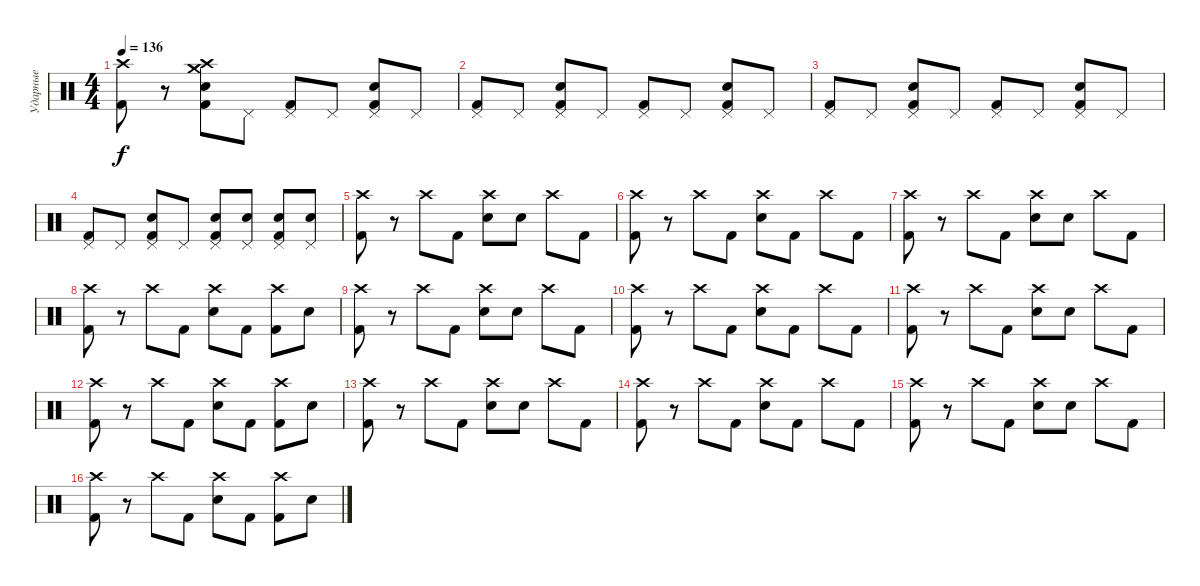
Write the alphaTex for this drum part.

\track ("Ударные" "Ударные") {instrument percussion}
\staff {score}
\articulation defaults
\ts (4 4)
\tempo 136
\clef neutral
\ks c
("Crash high (hit)" "Kick (hit) 2").8{dy f} r.8 ("Crash medium (hit)" "Crash high (hit)" "Snare (hit) 2" "Kick (hit) 2").8 "Pedal Hi-Hat (hit)".8 ("Pedal Hi-Hat (hit)" "Kick (hit) 2").8 "Pedal Hi-Hat (hit)".8 ("Pedal Hi-Hat (hit)" "Snare (hit) 2" "Kick (hit) 2").8 "Pedal Hi-Hat (hit)".8 |
("Pedal Hi-Hat (hit)" "Kick (hit) 2").8 "Pedal Hi-Hat (hit)".8 ("Pedal Hi-Hat (hit)" "Snare (hit) 2" "Kick (hit) 2").8 "Pedal Hi-Hat (hit)".8 ("Pedal Hi-Hat (hit)" "Kick (hit) 2").8 "Pedal Hi-Hat (hit)".8 ("Pedal Hi-Hat (hit)" "Snare (hit) 2" "Kick (hit) 2").8 "Pedal Hi-Hat (hit)".8 |
("Pedal Hi-Hat (hit)" "Kick (hit) 2").8 "Pedal Hi-Hat (hit)".8 ("Pedal Hi-Hat (hit)" "Snare (hit) 2" "Kick (hit) 2").8 "Pedal Hi-Hat (hit)".8 ("Pedal Hi-Hat (hit)" "Kick (hit) 2").8 "Pedal Hi-Hat (hit)".8 ("Pedal Hi-Hat (hit)" "Snare (hit) 2" "Kick (hit) 2").8 "Pedal Hi-Hat (hit)".8 |
("Pedal Hi-Hat (hit)" "Kick (hit) 2").8 "Pedal Hi-Hat (hit)".8 ("Pedal Hi-Hat (hit)" "Snare (hit) 2" "Kick (hit) 2").8 "Pedal Hi-Hat (hit)".8 ("Pedal Hi-Hat (hit)" "Snare (hit) 2" "Kick (hit) 2").8 ("Pedal Hi-Hat (hit)" "Snare (hit) 2").8 ("Pedal Hi-Hat (hit)" "Snare (hit) 2" "Kick (hit) 2").8 ("Pedal Hi-Hat (hit)" "Snare (hit) 2").8 |
("Crash high (hit)" "Kick (hit) 2").8 r.8 "Crash high (hit)".8 "Kick (hit) 2".8 ("Crash high (hit)" "Snare (hit) 2").8 "Snare (hit) 2".8 "Crash high (hit)".8 "Kick (hit) 2".8 |
("Crash high (hit)" "Kick (hit) 2").8 r.8 "Crash high (hit)".8 "Kick (hit) 2".8 ("Crash high (hit)" "Snare (hit) 2").8 "Kick (hit) 2".8 "Crash high (hit)".8 "Kick (hit) 2".8 |
("Crash high (hit)" "Kick (hit) 2").8 r.8 "Crash high (hit)".8 "Kick (hit) 2".8 ("Crash high (hit)" "Snare (hit) 2").8 "Snare (hit) 2".8 "Crash high (hit)".8 "Kick (hit) 2".8 |
("Crash high (hit)" "Kick (hit) 2").8 r.8 "Crash high (hit)".8 "Kick (hit) 2".8 ("Crash high (hit)" "Snare (hit) 2").8 "Kick (hit) 2".8 ("Crash high (hit)" "Kick (hit) 2").8 "Snare (hit) 2".8 |
("Crash high (hit)" "Kick (hit) 2").8 r.8 "Crash high (hit)".8 "Kick (hit) 2".8 ("Crash high (hit)" "Snare (hit) 2").8 "Snare (hit) 2".8 "Crash high (hit)".8 "Kick (hit) 2".8 |
("Crash high (hit)" "Kick (hit) 2").8 r.8 "Crash high (hit)".8 "Kick (hit) 2".8 ("Crash high (hit)" "Snare (hit) 2").8 "Kick (hit) 2".8 "Crash high (hit)".8 "Kick (hit) 2".8 |
("Crash high (hit)" "Kick (hit) 2").8 r.8 "Crash high (hit)".8 "Kick (hit) 2".8 ("Crash high (hit)" "Snare (hit) 2").8 "Snare (hit) 2".8 "Crash high (hit)".8 "Kick (hit) 2".8 |
("Crash high (hit)" "Kick (hit) 2").8 r.8 "Crash high (hit)".8 "Kick (hit) 2".8 ("Crash high (hit)" "Snare (hit) 2").8 "Kick (hit) 2".8 ("Crash high (hit)" "Kick (hit) 2").8 "Snare (hit) 2".8 |
("Crash high (hit)" "Kick (hit) 2").8 r.8 "Crash high (hit)".8 "Kick (hit) 2".8 ("Crash high (hit)" "Snare (hit) 2").8 "Snare (hit) 2".8 "Crash high (hit)".8 "Kick (hit) 2".8 |
("Crash high (hit)" "Kick (hit) 2").8 r.8 "Crash high (hit)".8 "Kick (hit) 2".8 ("Crash high (hit)" "Snare (hit) 2").8 "Kick (hit) 2".8 "Crash high (hit)".8 "Kick (hit) 2".8 |
("Crash high (hit)" "Kick (hit) 2").8 r.8 "Crash high (hit)".8 "Kick (hit) 2".8 ("Crash high (hit)" "Snare (hit) 2").8 "Snare (hit) 2".8 "Crash high (hit)".8 "Kick (hit) 2".8 |
("Crash high (hit)" "Kick (hit) 2").8 r.8 "Crash high (hit)".8 "Kick (hit) 2".8 ("Crash high (hit)" "Snare (hit) 2").8 "Kick (hit) 2".8 ("Crash high (hit)" "Kick (hit) 2").8 "Snare (hit) 2".8
